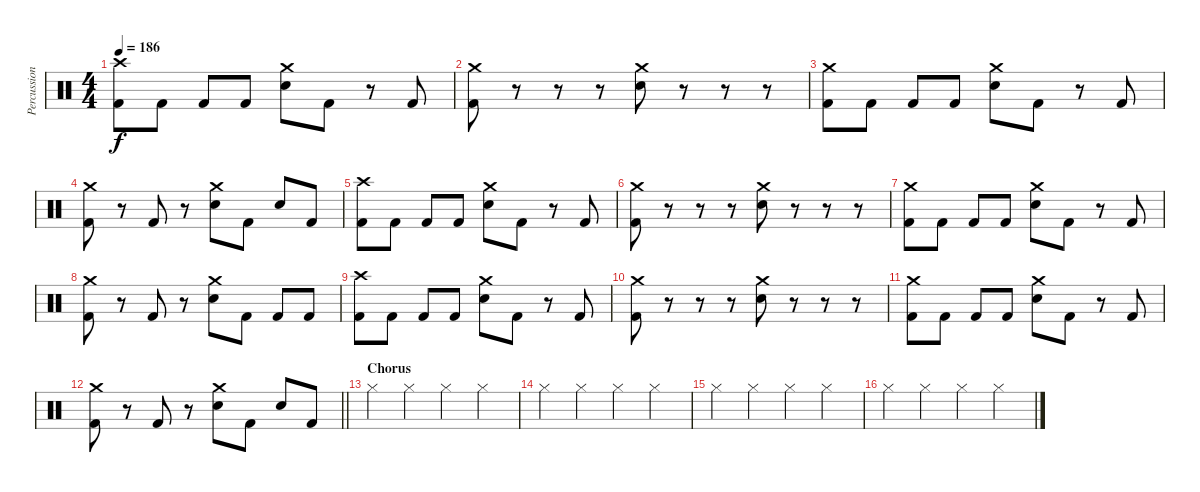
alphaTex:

\track ("Percussion" "Percussion") {instrument percussion}
\staff {score}
\articulation defaults
\ts (4 4)
\tempo 186
\clef neutral
\ks c
("Crash high (hit)" "Kick (hit) 2").8{dy f} "Kick (hit) 2".8 "Kick (hit) 2".8 "Kick (hit) 2".8 ("Crash medium (hit)" "Electric Snare (hit)").8 "Kick (hit) 2".8 r.8 "Kick (hit) 2".8 |
("Crash medium (hit)" "Kick (hit) 2").8 r.8 r.8 r.8 ("Crash medium (hit)" "Electric Snare (hit)").8 r.8 r.8 r.8 |
("Crash medium (hit)" "Kick (hit) 2").8 "Kick (hit) 2".8 "Kick (hit) 2".8 "Kick (hit) 2".8 ("Crash medium (hit)" "Electric Snare (hit)").8 "Kick (hit) 2".8 r.8 "Kick (hit) 2".8 |
("Crash medium (hit)" "Kick (hit) 2").8 r.8 "Kick (hit) 2".8 r.8 ("Crash medium (hit)" "Electric Snare (hit)").8 "Kick (hit) 2".8 "Electric Snare (hit)".8 "Kick (hit) 2".8 |
("Crash high (hit)" "Kick (hit) 2").8 "Kick (hit) 2".8 "Kick (hit) 2".8 "Kick (hit) 2".8 ("Crash medium (hit)" "Electric Snare (hit)").8 "Kick (hit) 2".8 r.8 "Kick (hit) 2".8 |
("Crash medium (hit)" "Kick (hit) 2").8 r.8 r.8 r.8 ("Crash medium (hit)" "Electric Snare (hit)").8 r.8 r.8 r.8 |
("Crash medium (hit)" "Kick (hit) 2").8 "Kick (hit) 2".8 "Kick (hit) 2".8 "Kick (hit) 2".8 ("Crash medium (hit)" "Electric Snare (hit)").8 "Kick (hit) 2".8 r.8 "Kick (hit) 2".8 |
("Crash medium (hit)" "Kick (hit) 2").8 r.8 "Kick (hit) 2".8 r.8 ("Crash medium (hit)" "Electric Snare (hit)").8 "Kick (hit) 2".8 "Kick (hit) 2".8 "Kick (hit) 2".8 |
("Crash high (hit)" "Kick (hit) 2").8 "Kick (hit) 2".8 "Kick (hit) 2".8 "Kick (hit) 2".8 ("Crash medium (hit)" "Electric Snare (hit)").8 "Kick (hit) 2".8 r.8 "Kick (hit) 2".8 |
("Crash medium (hit)" "Kick (hit) 2").8 r.8 r.8 r.8 ("Crash medium (hit)" "Electric Snare (hit)").8 r.8 r.8 r.8 |
("Crash medium (hit)" "Kick (hit) 2").8 "Kick (hit) 2".8 "Kick (hit) 2".8 "Kick (hit) 2".8 ("Crash medium (hit)" "Electric Snare (hit)").8 "Kick (hit) 2".8 r.8 "Kick (hit) 2".8 |
\barLineRight lightlight
("Crash medium (hit)" "Kick (hit) 2").8 r.8 "Kick (hit) 2".8 r.8 ("Crash medium (hit)" "Electric Snare (hit)").8 "Kick (hit) 2".8 "Electric Snare (hit)".8 "Kick (hit) 2".8 |
\section ("" "Chorus")
"Hi-Hat (closed)".4 "Hi-Hat (closed)".4 "Hi-Hat (closed)".4 "Hi-Hat (closed)".4 |
"Hi-Hat (closed)".4 "Hi-Hat (closed)".4 "Hi-Hat (closed)".4 "Hi-Hat (closed)".4 |
"Hi-Hat (closed)".4 "Hi-Hat (closed)".4 "Hi-Hat (closed)".4 "Hi-Hat (closed)".4 |
"Hi-Hat (closed)".4 "Hi-Hat (closed)".4 "Hi-Hat (closed)".4 "Hi-Hat (closed)".4
